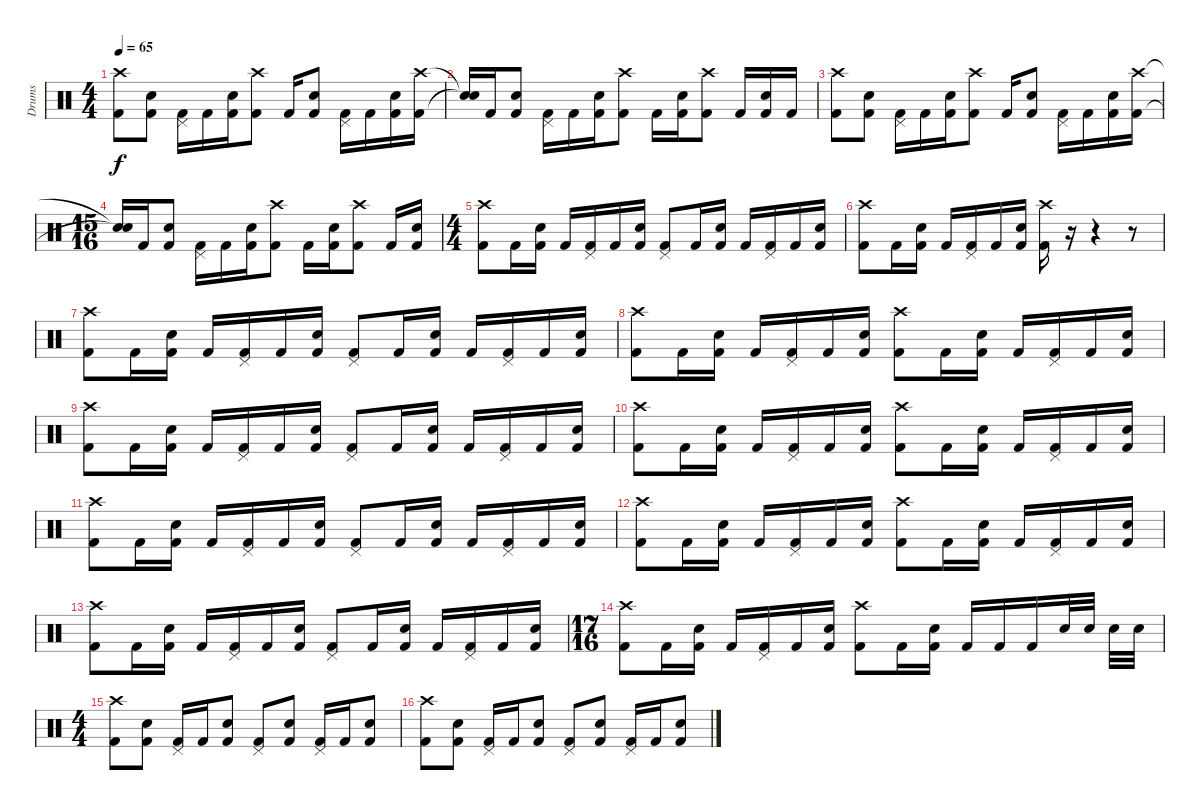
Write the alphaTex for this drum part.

\track ("Drums" "Drums") {instrument percussion}
\staff {score}
\articulation defaults
\ts (4 4)
\tempo 65
\clef neutral
\ks c
("Crash high (hit)" "Kick (hit) 2").8{dy f} ("Electric Snare (hit)" "Kick (hit) 2").8 ("Pedal Hi-Hat (hit)" "Kick (hit) 2").16 "Kick (hit) 2".16 ("Electric Snare (hit)" "Kick (hit) 2").16 ("Crash high (hit)" "Kick (hit) 2").8 "Kick (hit) 2".16 ("Electric Snare (hit)" "Kick (hit) 2").8 ("Pedal Hi-Hat (hit)" "Kick (hit) 2").16 "Kick (hit) 2".16 ("Electric Snare (hit)" "Kick (hit) 2").16 ("Crash high (hit)" "Kick (hit) 2").16 |
("Snare (hit)"{t} "Snare (hit)"{t}).16 "Kick (hit) 2".16 ("Electric Snare (hit)" "Kick (hit) 2").8 ("Pedal Hi-Hat (hit)" "Kick (hit) 2").16 "Kick (hit) 2".16 ("Electric Snare (hit)" "Kick (hit) 2").16 ("Crash high (hit)" "Kick (hit) 2").8 "Kick (hit) 2".16 ("Electric Snare (hit)" "Kick (hit) 2").16 ("Crash high (hit)" "Kick (hit) 2").8 "Kick (hit) 2".16 ("Electric Snare (hit)" "Kick (hit) 2").16 "Kick (hit) 2".16 |
("Crash high (hit)" "Kick (hit) 2").8 ("Electric Snare (hit)" "Kick (hit) 2").8 ("Pedal Hi-Hat (hit)" "Kick (hit) 2").16 "Kick (hit) 2".16 ("Electric Snare (hit)" "Kick (hit) 2").16 ("Crash high (hit)" "Kick (hit) 2").8 "Kick (hit) 2".16 ("Electric Snare (hit)" "Kick (hit) 2").8 ("Pedal Hi-Hat (hit)" "Kick (hit) 2").16 "Kick (hit) 2".16 ("Electric Snare (hit)" "Kick (hit) 2").16 ("Crash high (hit)" "Kick (hit) 2").16 |
\ts (15 16)
("Snare (hit)"{t} "Snare (hit)"{t}).16 "Kick (hit) 2".16 ("Electric Snare (hit)" "Kick (hit) 2").8 ("Pedal Hi-Hat (hit)" "Kick (hit) 2").16 "Kick (hit) 2".16 ("Electric Snare (hit)" "Kick (hit) 2").16 ("Crash high (hit)" "Kick (hit) 2").8 "Kick (hit) 2".16 ("Electric Snare (hit)" "Kick (hit) 2").16 ("Crash high (hit)" "Kick (hit) 2").8 "Kick (hit) 2".16 ("Electric Snare (hit)" "Kick (hit) 2").16 |
\ts (4 4)
("Crash high (hit)" "Kick (hit) 2").8 "Kick (hit) 2".16 ("Electric Snare (hit)" "Kick (hit) 2").16 "Kick (hit) 2".16 ("Pedal Hi-Hat (hit)" "Kick (hit) 2").16 "Kick (hit) 2".16 ("Electric Snare (hit)" "Kick (hit) 2").16 ("Pedal Hi-Hat (hit)" "Kick (hit) 2").8 "Kick (hit) 2".16 ("Electric Snare (hit)" "Kick (hit) 2").16 "Kick (hit) 2".16 ("Pedal Hi-Hat (hit)" "Kick (hit) 2").16 "Kick (hit) 2".16 ("Electric Snare (hit)" "Kick (hit) 2").16 |
("Crash high (hit)" "Kick (hit) 2").8 "Kick (hit) 2".16 ("Electric Snare (hit)" "Kick (hit) 2").16 "Kick (hit) 2".16 ("Pedal Hi-Hat (hit)" "Kick (hit) 2").16 "Kick (hit) 2".16 ("Electric Snare (hit)" "Kick (hit) 2").16 ("Crash high (hit)" "Kick (hit) 2").16 r.16 r.4 r.8 |
("Crash high (hit)" "Kick (hit) 2").8 "Kick (hit) 2".16 ("Electric Snare (hit)" "Kick (hit) 2").16 "Kick (hit) 2".16 ("Pedal Hi-Hat (hit)" "Kick (hit) 2").16 "Kick (hit) 2".16 ("Electric Snare (hit)" "Kick (hit) 2").16 ("Pedal Hi-Hat (hit)" "Kick (hit) 2").8 "Kick (hit) 2".16 ("Electric Snare (hit)" "Kick (hit) 2").16 "Kick (hit) 2".16 ("Pedal Hi-Hat (hit)" "Kick (hit) 2").16 "Kick (hit) 2".16 ("Electric Snare (hit)" "Kick (hit) 2").16 |
("Crash high (hit)" "Kick (hit) 2").8 "Kick (hit) 2".16 ("Electric Snare (hit)" "Kick (hit) 2").16 "Kick (hit) 2".16 ("Pedal Hi-Hat (hit)" "Kick (hit) 2").16 "Kick (hit) 2".16 ("Electric Snare (hit)" "Kick (hit) 2").16 ("Crash high (hit)" "Kick (hit) 2").8 "Kick (hit) 2".16 ("Electric Snare (hit)" "Kick (hit) 2").16 "Kick (hit) 2".16 ("Pedal Hi-Hat (hit)" "Kick (hit) 2").16 "Kick (hit) 2".16 ("Electric Snare (hit)" "Kick (hit) 2").16 |
("Crash high (hit)" "Kick (hit) 2").8 "Kick (hit) 2".16 ("Electric Snare (hit)" "Kick (hit) 2").16 "Kick (hit) 2".16 ("Pedal Hi-Hat (hit)" "Kick (hit) 2").16 "Kick (hit) 2".16 ("Electric Snare (hit)" "Kick (hit) 2").16 ("Pedal Hi-Hat (hit)" "Kick (hit) 2").8 "Kick (hit) 2".16 ("Electric Snare (hit)" "Kick (hit) 2").16 "Kick (hit) 2".16 ("Pedal Hi-Hat (hit)" "Kick (hit) 2").16 "Kick (hit) 2".16 ("Electric Snare (hit)" "Kick (hit) 2").16 |
("Crash high (hit)" "Kick (hit) 2").8 "Kick (hit) 2".16 ("Electric Snare (hit)" "Kick (hit) 2").16 "Kick (hit) 2".16 ("Pedal Hi-Hat (hit)" "Kick (hit) 2").16 "Kick (hit) 2".16 ("Electric Snare (hit)" "Kick (hit) 2").16 ("Crash high (hit)" "Kick (hit) 2").8 "Kick (hit) 2".16 ("Electric Snare (hit)" "Kick (hit) 2").16 "Kick (hit) 2".16 ("Pedal Hi-Hat (hit)" "Kick (hit) 2").16 "Kick (hit) 2".16 ("Electric Snare (hit)" "Kick (hit) 2").16 |
("Crash high (hit)" "Kick (hit) 2").8 "Kick (hit) 2".16 ("Electric Snare (hit)" "Kick (hit) 2").16 "Kick (hit) 2".16 ("Pedal Hi-Hat (hit)" "Kick (hit) 2").16 "Kick (hit) 2".16 ("Electric Snare (hit)" "Kick (hit) 2").16 ("Pedal Hi-Hat (hit)" "Kick (hit) 2").8 "Kick (hit) 2".16 ("Electric Snare (hit)" "Kick (hit) 2").16 "Kick (hit) 2".16 ("Pedal Hi-Hat (hit)" "Kick (hit) 2").16 "Kick (hit) 2".16 ("Electric Snare (hit)" "Kick (hit) 2").16 |
("Crash high (hit)" "Kick (hit) 2").8 "Kick (hit) 2".16 ("Electric Snare (hit)" "Kick (hit) 2").16 "Kick (hit) 2".16 ("Pedal Hi-Hat (hit)" "Kick (hit) 2").16 "Kick (hit) 2".16 ("Electric Snare (hit)" "Kick (hit) 2").16 ("Crash high (hit)" "Kick (hit) 2").8 "Kick (hit) 2".16 ("Electric Snare (hit)" "Kick (hit) 2").16 "Kick (hit) 2".16 ("Pedal Hi-Hat (hit)" "Kick (hit) 2").16 "Kick (hit) 2".16 ("Electric Snare (hit)" "Kick (hit) 2").16 |
("Crash high (hit)" "Kick (hit) 2").8 "Kick (hit) 2".16 ("Electric Snare (hit)" "Kick (hit) 2").16 "Kick (hit) 2".16 ("Pedal Hi-Hat (hit)" "Kick (hit) 2").16 "Kick (hit) 2".16 ("Electric Snare (hit)" "Kick (hit) 2").16 ("Pedal Hi-Hat (hit)" "Kick (hit) 2").8 "Kick (hit) 2".16 ("Electric Snare (hit)" "Kick (hit) 2").16 "Kick (hit) 2".16 ("Pedal Hi-Hat (hit)" "Kick (hit) 2").16 "Kick (hit) 2".16 ("Electric Snare (hit)" "Kick (hit) 2").16 |
\ts (17 16)
("Crash high (hit)" "Kick (hit) 2").8 "Kick (hit) 2".16 ("Electric Snare (hit)" "Kick (hit) 2").16 "Kick (hit) 2".16 ("Pedal Hi-Hat (hit)" "Kick (hit) 2").16 "Kick (hit) 2".16 ("Electric Snare (hit)" "Kick (hit) 2").16 ("Crash high (hit)" "Kick (hit) 2").8 "Kick (hit) 2".16 ("Electric Snare (hit)" "Kick (hit) 2").16 "Kick (hit) 2".16 "Kick (hit) 2".16 "Kick (hit) 2".16 "Electric Snare (hit)".32 "Electric Snare (hit)".32 "Electric Snare (hit)".32 "Electric Snare (hit)".32 |
\ts (4 4)
("Crash high (hit)" "Kick (hit) 2").8 ("Electric Snare (hit)" "Kick (hit) 2").8 ("Pedal Hi-Hat (hit)" "Kick (hit) 2").16 "Kick (hit) 2".16 ("Electric Snare (hit)" "Kick (hit) 2").8 ("Pedal Hi-Hat (hit)" "Kick (hit) 2").8 ("Electric Snare (hit)" "Kick (hit) 2").8 ("Pedal Hi-Hat (hit)" "Kick (hit) 2").16 "Kick (hit) 2".16 ("Electric Snare (hit)" "Kick (hit) 2").8 |
("Crash high (hit)" "Kick (hit) 2").8 ("Electric Snare (hit)" "Kick (hit) 2").8 ("Pedal Hi-Hat (hit)" "Kick (hit) 2").16 "Kick (hit) 2".16 ("Electric Snare (hit)" "Kick (hit) 2").8 ("Pedal Hi-Hat (hit)" "Kick (hit) 2").8 ("Electric Snare (hit)" "Kick (hit) 2").8 ("Pedal Hi-Hat (hit)" "Kick (hit) 2").16 "Kick (hit) 2".16 ("Electric Snare (hit)" "Kick (hit) 2").8
